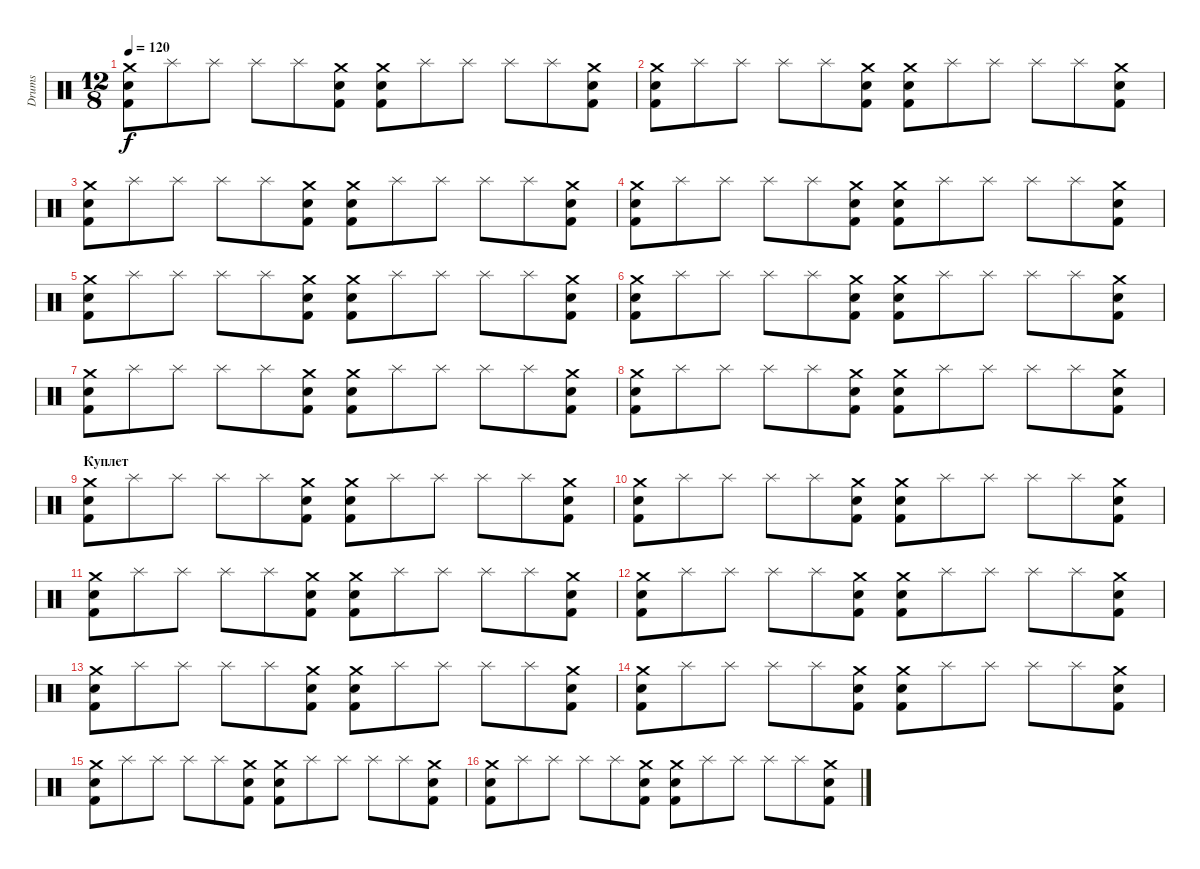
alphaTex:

\track ("Drums" "Drums") {instrument percussion}
\staff {score}
\articulation defaults
\ts (12 8)
\tempo 120
\clef neutral
\ks c
("Crash medium (hit)" "Snare (hit) 2" "Kick (hit) 2").8{dy f} "Splash (hit)".8 "Splash (hit)".8 "Splash (hit)".8 "Splash (hit)".8 ("Crash medium (hit)" "Snare (hit) 2" "Kick (hit) 2").8 ("Crash medium (hit)" "Snare (hit) 2" "Kick (hit) 2").8 "Splash (hit)".8 "Splash (hit)".8 "Splash (hit)".8 "Splash (hit)".8 ("Crash medium (hit)" "Snare (hit) 2" "Kick (hit) 2").8 |
("Crash medium (hit)" "Snare (hit) 2" "Kick (hit) 2").8 "Splash (hit)".8 "Splash (hit)".8 "Splash (hit)".8 "Splash (hit)".8 ("Crash medium (hit)" "Snare (hit) 2" "Kick (hit) 2").8 ("Crash medium (hit)" "Snare (hit) 2" "Kick (hit) 2").8 "Splash (hit)".8 "Splash (hit)".8 "Splash (hit)".8 "Splash (hit)".8 ("Crash medium (hit)" "Snare (hit) 2" "Kick (hit) 2").8 |
("Crash medium (hit)" "Snare (hit) 2" "Kick (hit) 2").8 "Splash (hit)".8 "Splash (hit)".8 "Splash (hit)".8 "Splash (hit)".8 ("Crash medium (hit)" "Snare (hit) 2" "Kick (hit) 2").8 ("Crash medium (hit)" "Snare (hit) 2" "Kick (hit) 2").8 "Splash (hit)".8 "Splash (hit)".8 "Splash (hit)".8 "Splash (hit)".8 ("Crash medium (hit)" "Snare (hit) 2" "Kick (hit) 2").8 |
("Crash medium (hit)" "Snare (hit) 2" "Kick (hit) 2").8 "Splash (hit)".8 "Splash (hit)".8 "Splash (hit)".8 "Splash (hit)".8 ("Crash medium (hit)" "Snare (hit) 2" "Kick (hit) 2").8 ("Crash medium (hit)" "Snare (hit) 2" "Kick (hit) 2").8 "Splash (hit)".8 "Splash (hit)".8 "Splash (hit)".8 "Splash (hit)".8 ("Crash medium (hit)" "Snare (hit) 2" "Kick (hit) 2").8 |
("Crash medium (hit)" "Snare (hit) 2" "Kick (hit) 2").8 "Splash (hit)".8 "Splash (hit)".8 "Splash (hit)".8 "Splash (hit)".8 ("Crash medium (hit)" "Snare (hit) 2" "Kick (hit) 2").8 ("Crash medium (hit)" "Snare (hit) 2" "Kick (hit) 2").8 "Splash (hit)".8 "Splash (hit)".8 "Splash (hit)".8 "Splash (hit)".8 ("Crash medium (hit)" "Snare (hit) 2" "Kick (hit) 2").8 |
("Crash medium (hit)" "Snare (hit) 2" "Kick (hit) 2").8 "Splash (hit)".8 "Splash (hit)".8 "Splash (hit)".8 "Splash (hit)".8 ("Crash medium (hit)" "Snare (hit) 2" "Kick (hit) 2").8 ("Crash medium (hit)" "Snare (hit) 2" "Kick (hit) 2").8 "Splash (hit)".8 "Splash (hit)".8 "Splash (hit)".8 "Splash (hit)".8 ("Crash medium (hit)" "Snare (hit) 2" "Kick (hit) 2").8 |
("Crash medium (hit)" "Snare (hit) 2" "Kick (hit) 2").8 "Splash (hit)".8 "Splash (hit)".8 "Splash (hit)".8 "Splash (hit)".8 ("Crash medium (hit)" "Snare (hit) 2" "Kick (hit) 2").8 ("Crash medium (hit)" "Snare (hit) 2" "Kick (hit) 2").8 "Splash (hit)".8 "Splash (hit)".8 "Splash (hit)".8 "Splash (hit)".8 ("Crash medium (hit)" "Snare (hit) 2" "Kick (hit) 2").8 |
("Crash medium (hit)" "Snare (hit) 2" "Kick (hit) 2").8 "Splash (hit)".8 "Splash (hit)".8 "Splash (hit)".8 "Splash (hit)".8 ("Crash medium (hit)" "Snare (hit) 2" "Kick (hit) 2").8 ("Crash medium (hit)" "Snare (hit) 2" "Kick (hit) 2").8 "Splash (hit)".8 "Splash (hit)".8 "Splash (hit)".8 "Splash (hit)".8 ("Crash medium (hit)" "Snare (hit) 2" "Kick (hit) 2").8 |
\section ("" "Куплет")
("Crash medium (hit)" "Snare (hit) 2" "Kick (hit) 2").8 "Splash (hit)".8 "Splash (hit)".8 "Splash (hit)".8 "Splash (hit)".8 ("Crash medium (hit)" "Snare (hit) 2" "Kick (hit) 2").8 ("Crash medium (hit)" "Snare (hit) 2" "Kick (hit) 2").8 "Splash (hit)".8 "Splash (hit)".8 "Splash (hit)".8 "Splash (hit)".8 ("Crash medium (hit)" "Snare (hit) 2" "Kick (hit) 2").8 |
("Crash medium (hit)" "Snare (hit) 2" "Kick (hit) 2").8 "Splash (hit)".8 "Splash (hit)".8 "Splash (hit)".8 "Splash (hit)".8 ("Crash medium (hit)" "Snare (hit) 2" "Kick (hit) 2").8 ("Crash medium (hit)" "Snare (hit) 2" "Kick (hit) 2").8 "Splash (hit)".8 "Splash (hit)".8 "Splash (hit)".8 "Splash (hit)".8 ("Crash medium (hit)" "Snare (hit) 2" "Kick (hit) 2").8 |
("Crash medium (hit)" "Snare (hit) 2" "Kick (hit) 2").8 "Splash (hit)".8 "Splash (hit)".8 "Splash (hit)".8 "Splash (hit)".8 ("Crash medium (hit)" "Snare (hit) 2" "Kick (hit) 2").8 ("Crash medium (hit)" "Snare (hit) 2" "Kick (hit) 2").8 "Splash (hit)".8 "Splash (hit)".8 "Splash (hit)".8 "Splash (hit)".8 ("Crash medium (hit)" "Snare (hit) 2" "Kick (hit) 2").8 |
("Crash medium (hit)" "Snare (hit) 2" "Kick (hit) 2").8 "Splash (hit)".8 "Splash (hit)".8 "Splash (hit)".8 "Splash (hit)".8 ("Crash medium (hit)" "Snare (hit) 2" "Kick (hit) 2").8 ("Crash medium (hit)" "Snare (hit) 2" "Kick (hit) 2").8 "Splash (hit)".8 "Splash (hit)".8 "Splash (hit)".8 "Splash (hit)".8 ("Crash medium (hit)" "Snare (hit) 2" "Kick (hit) 2").8 |
("Crash medium (hit)" "Snare (hit) 2" "Kick (hit) 2").8 "Splash (hit)".8 "Splash (hit)".8 "Splash (hit)".8 "Splash (hit)".8 ("Crash medium (hit)" "Snare (hit) 2" "Kick (hit) 2").8 ("Crash medium (hit)" "Snare (hit) 2" "Kick (hit) 2").8 "Splash (hit)".8 "Splash (hit)".8 "Splash (hit)".8 "Splash (hit)".8 ("Crash medium (hit)" "Snare (hit) 2" "Kick (hit) 2").8 |
("Crash medium (hit)" "Snare (hit) 2" "Kick (hit) 2").8 "Splash (hit)".8 "Splash (hit)".8 "Splash (hit)".8 "Splash (hit)".8 ("Crash medium (hit)" "Snare (hit) 2" "Kick (hit) 2").8 ("Crash medium (hit)" "Snare (hit) 2" "Kick (hit) 2").8 "Splash (hit)".8 "Splash (hit)".8 "Splash (hit)".8 "Splash (hit)".8 ("Crash medium (hit)" "Snare (hit) 2" "Kick (hit) 2").8 |
("Crash medium (hit)" "Snare (hit) 2" "Kick (hit) 2").8 "Splash (hit)".8 "Splash (hit)".8 "Splash (hit)".8 "Splash (hit)".8 ("Crash medium (hit)" "Snare (hit) 2" "Kick (hit) 2").8 ("Crash medium (hit)" "Snare (hit) 2" "Kick (hit) 2").8 "Splash (hit)".8 "Splash (hit)".8 "Splash (hit)".8 "Splash (hit)".8 ("Crash medium (hit)" "Snare (hit) 2" "Kick (hit) 2").8 |
("Crash medium (hit)" "Snare (hit) 2" "Kick (hit) 2").8 "Splash (hit)".8 "Splash (hit)".8 "Splash (hit)".8 "Splash (hit)".8 ("Crash medium (hit)" "Snare (hit) 2" "Kick (hit) 2").8 ("Crash medium (hit)" "Snare (hit) 2" "Kick (hit) 2").8 "Splash (hit)".8 "Splash (hit)".8 "Splash (hit)".8 "Splash (hit)".8 ("Crash medium (hit)" "Snare (hit) 2" "Kick (hit) 2").8
